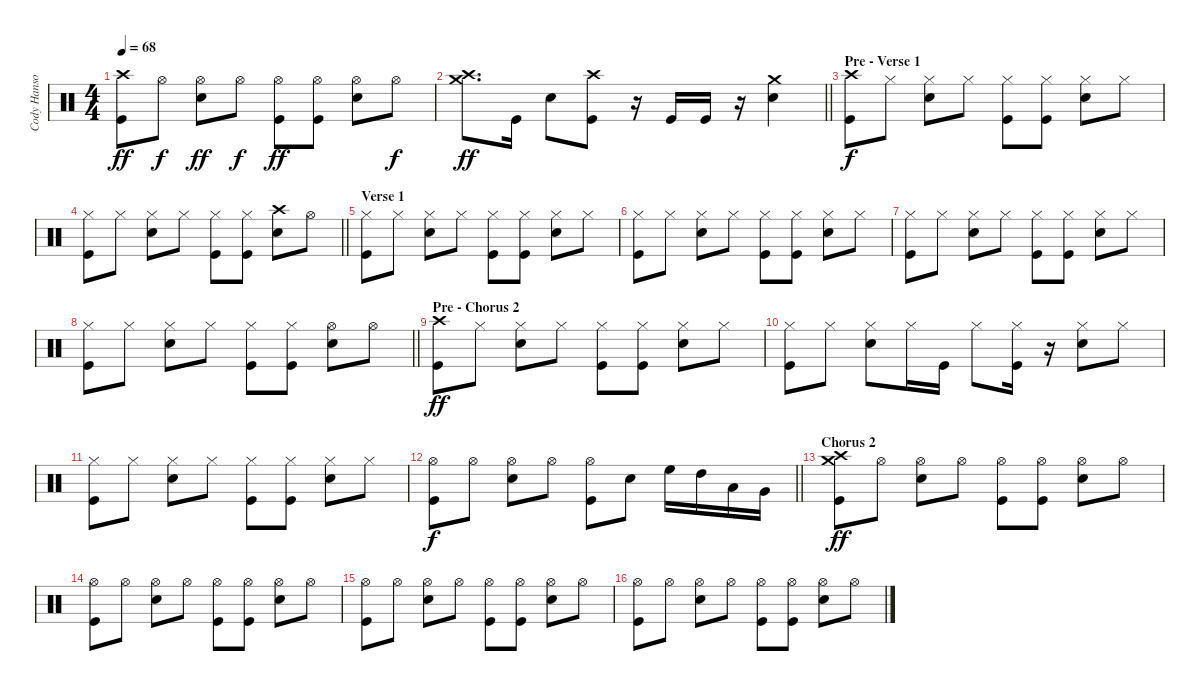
\track ("Cody Hanson (Drums)" "Cody Hanso") {instrument percussion}
\staff {score}
\articulation defaults
\ts (4 4)
\tempo 68
\clef neutral
\ks c
("Crash high (hit)" "Kick (hit)").8{dy ff} "Hi-Hat (open)".8{dy f} ("Hi-Hat (open)" "Snare (hit) 2").8{dy ff} "Hi-Hat (open)".8{dy f} ("Hi-Hat (open)" "Kick (hit)").8{dy ff} ("Hi-Hat (open)" "Kick (hit)").8 ("Hi-Hat (open)" "Snare (hit) 2").8 "Hi-Hat (open)".8{dy f} |
\barLineRight lightlight
("Crash high (hit)" "Crash medium (hit)").8{d dy ff} "Kick (hit)".16 "Snare (hit) 2".8 ("Crash high (hit)" "Kick (hit)").8 r.16 "Kick (hit)".16 "Kick (hit)".16 r.16 ("Crash medium (hit)" "Snare (hit) 2").4 |
\section ("" "Pre - Verse 1")
("Crash high (hit)" "Kick (hit)").8{dy f} "Hi-Hat (closed)".8 ("Hi-Hat (closed)" "Snare (hit) 2").8 "Hi-Hat (closed)".8 ("Hi-Hat (closed)" "Kick (hit)").8 ("Hi-Hat (closed)" "Kick (hit)").8 ("Hi-Hat (closed)" "Snare (hit) 2").8 "Hi-Hat (closed)".8 |
\barLineRight lightlight
("Hi-Hat (closed)" "Kick (hit)").8 "Hi-Hat (closed)".8 ("Hi-Hat (closed)" "Snare (hit) 2").8 "Hi-Hat (closed)".8 ("Hi-Hat (closed)" "Kick (hit)").8 ("Hi-Hat (closed)" "Kick (hit)").8 ("Crash high (hit)" "Snare (hit) 2").8 "Hi-Hat (open)".8 |
\section ("" "Verse 1")
("Hi-Hat (closed)" "Kick (hit)").8 "Hi-Hat (closed)".8 ("Hi-Hat (closed)" "Snare (hit) 2").8 "Hi-Hat (closed)".8 ("Hi-Hat (closed)" "Kick (hit)").8 ("Hi-Hat (closed)" "Kick (hit)").8 ("Hi-Hat (closed)" "Snare (hit) 2").8 "Hi-Hat (closed)".8 |
("Hi-Hat (closed)" "Kick (hit)").8 "Hi-Hat (closed)".8 ("Hi-Hat (closed)" "Snare (hit) 2").8 "Hi-Hat (closed)".8 ("Hi-Hat (closed)" "Kick (hit)").8 ("Hi-Hat (closed)" "Kick (hit)").8 ("Hi-Hat (closed)" "Snare (hit) 2").8 "Hi-Hat (closed)".8 |
("Hi-Hat (closed)" "Kick (hit)").8 "Hi-Hat (closed)".8 ("Hi-Hat (closed)" "Snare (hit) 2").8 "Hi-Hat (closed)".8 ("Hi-Hat (closed)" "Kick (hit)").8 ("Hi-Hat (closed)" "Kick (hit)").8 ("Hi-Hat (closed)" "Snare (hit) 2").8 "Hi-Hat (closed)".8 |
\barLineRight lightlight
("Hi-Hat (closed)" "Kick (hit)").8 "Hi-Hat (closed)".8 ("Hi-Hat (closed)" "Snare (hit) 2").8 "Hi-Hat (closed)".8 ("Hi-Hat (closed)" "Kick (hit)").8 ("Hi-Hat (closed)" "Kick (hit)").8 ("Hi-Hat (open)" "Snare (hit) 2").8 "Hi-Hat (open)".8 |
\section ("" "Pre - Chorus 2")
("Crash high (hit)" "Kick (hit)").8{dy ff} "Hi-Hat (closed)".8 ("Hi-Hat (closed)" "Snare (hit) 2").8 "Hi-Hat (closed)".8 ("Hi-Hat (closed)" "Kick (hit)").8 ("Hi-Hat (closed)" "Kick (hit)").8 ("Hi-Hat (closed)" "Snare (hit) 2").8 "Hi-Hat (closed)".8 |
("Hi-Hat (closed)" "Kick (hit)").8 "Hi-Hat (closed)".8 ("Hi-Hat (closed)" "Snare (hit) 2").8 "Hi-Hat (closed)".16 "Kick (hit)".16 "Hi-Hat (closed)".8 ("Hi-Hat (closed)" "Kick (hit)").16 r.16 ("Hi-Hat (closed)" "Snare (hit) 2").8 "Hi-Hat (closed)".8 |
("Hi-Hat (closed)" "Kick (hit)").8 "Hi-Hat (closed)".8 ("Hi-Hat (closed)" "Snare (hit) 2").8 "Hi-Hat (closed)".8 ("Hi-Hat (closed)" "Kick (hit)").8 ("Hi-Hat (closed)" "Kick (hit)").8 ("Hi-Hat (closed)" "Snare (hit) 2").8 "Hi-Hat (closed)".8 |
\barLineRight lightlight
("Hi-Hat (open)" "Kick (hit)").8{dy f} "Hi-Hat (open)".8 ("Hi-Hat (open)" "Snare (hit) 2").8 "Hi-Hat (open)".8 ("Hi-Hat (open)" "Kick (hit)").8 "Snare (hit) 2".8 "High Floor Tom (hit)".16 "High Tom (hit)".16 "Low Tom (hit)".16 "Very Low Tom (hit)".16 |
\section ("" "Chorus 2")
("Crash high (hit)" "Crash medium (hit)" "Kick (hit)").8{dy ff} "Hi-Hat (open)".8 ("Hi-Hat (open)" "Snare (hit) 2").8 "Hi-Hat (open)".8 ("Hi-Hat (open)" "Kick (hit)").8 ("Hi-Hat (open)" "Kick (hit)").8 ("Hi-Hat (open)" "Snare (hit) 2").8 "Hi-Hat (open)".8 |
("Hi-Hat (open)" "Kick (hit)").8 "Hi-Hat (open)".8 ("Hi-Hat (open)" "Snare (hit) 2").8 "Hi-Hat (open)".8 ("Hi-Hat (open)" "Kick (hit)").8 ("Hi-Hat (open)" "Kick (hit)").8 ("Hi-Hat (open)" "Snare (hit) 2").8 "Hi-Hat (open)".8 |
("Hi-Hat (open)" "Kick (hit)").8 "Hi-Hat (open)".8 ("Hi-Hat (open)" "Snare (hit) 2").8 "Hi-Hat (open)".8 ("Hi-Hat (open)" "Kick (hit)").8 ("Hi-Hat (open)" "Kick (hit)").8 ("Hi-Hat (open)" "Snare (hit) 2").8 "Hi-Hat (open)".8 |
("Hi-Hat (open)" "Kick (hit)").8 "Hi-Hat (open)".8 ("Hi-Hat (open)" "Snare (hit) 2").8 "Hi-Hat (open)".8 ("Hi-Hat (open)" "Kick (hit)").8 ("Hi-Hat (open)" "Kick (hit)").8 ("Hi-Hat (open)" "Snare (hit) 2").8 "Hi-Hat (open)".8
